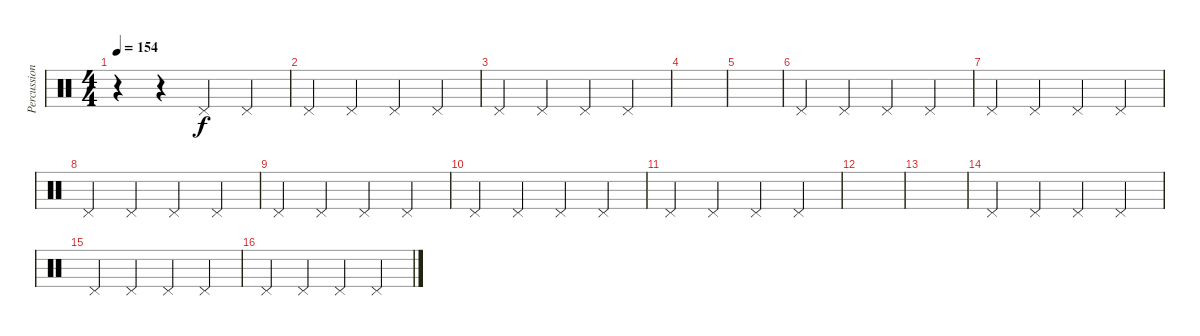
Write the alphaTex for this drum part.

\track ("Percussion" "Percussion") {instrument percussion}
\staff {score}
\articulation defaults
\ts (4 4)
\tempo 154
\clef neutral
\ks c
r.4{dy f} r.4 "Pedal Hi-Hat (hit)".4 "Pedal Hi-Hat (hit)".4 |
"Pedal Hi-Hat (hit)".4 "Pedal Hi-Hat (hit)".4 "Pedal Hi-Hat (hit)".4 "Pedal Hi-Hat (hit)".4 |
"Pedal Hi-Hat (hit)".4 "Pedal Hi-Hat (hit)".4 "Pedal Hi-Hat (hit)".4 "Pedal Hi-Hat (hit)".4 |
|
|
"Pedal Hi-Hat (hit)".4 "Pedal Hi-Hat (hit)".4 "Pedal Hi-Hat (hit)".4 "Pedal Hi-Hat (hit)".4 |
"Pedal Hi-Hat (hit)".4 "Pedal Hi-Hat (hit)".4 "Pedal Hi-Hat (hit)".4 "Pedal Hi-Hat (hit)".4 |
"Pedal Hi-Hat (hit)".4 "Pedal Hi-Hat (hit)".4 "Pedal Hi-Hat (hit)".4 "Pedal Hi-Hat (hit)".4 |
"Pedal Hi-Hat (hit)".4 "Pedal Hi-Hat (hit)".4 "Pedal Hi-Hat (hit)".4 "Pedal Hi-Hat (hit)".4 |
"Pedal Hi-Hat (hit)".4 "Pedal Hi-Hat (hit)".4 "Pedal Hi-Hat (hit)".4 "Pedal Hi-Hat (hit)".4 |
"Pedal Hi-Hat (hit)".4 "Pedal Hi-Hat (hit)".4 "Pedal Hi-Hat (hit)".4 "Pedal Hi-Hat (hit)".4 |
|
|
"Pedal Hi-Hat (hit)".4 "Pedal Hi-Hat (hit)".4 "Pedal Hi-Hat (hit)".4 "Pedal Hi-Hat (hit)".4 |
"Pedal Hi-Hat (hit)".4 "Pedal Hi-Hat (hit)".4 "Pedal Hi-Hat (hit)".4 "Pedal Hi-Hat (hit)".4 |
"Pedal Hi-Hat (hit)".4 "Pedal Hi-Hat (hit)".4 "Pedal Hi-Hat (hit)".4 "Pedal Hi-Hat (hit)".4
